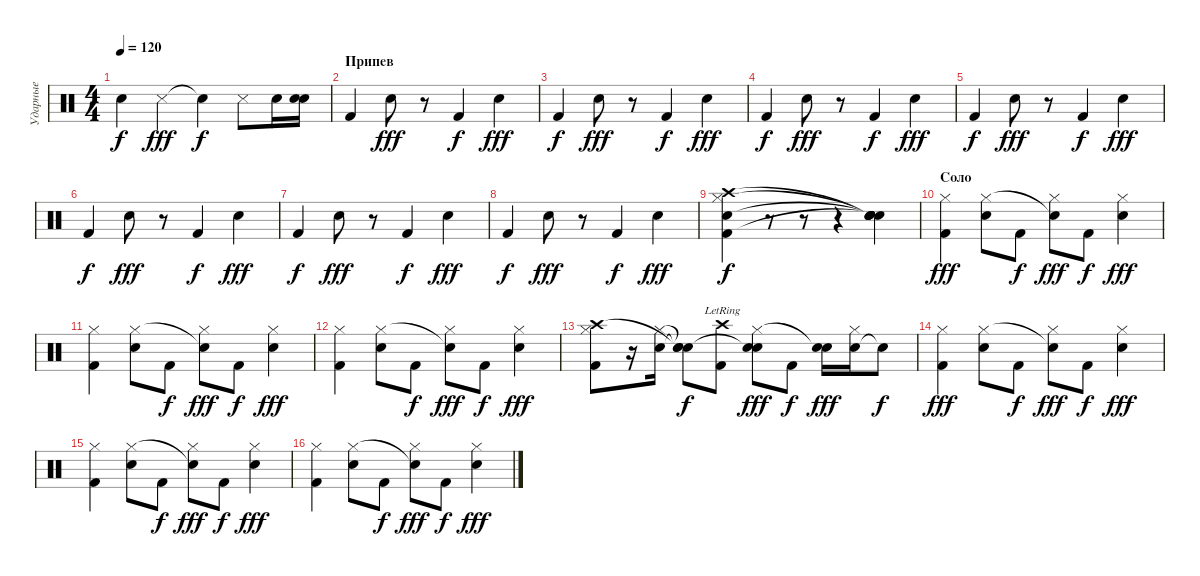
\track ("Ударные" "Ударные") {instrument percussion}
\staff {score}
\articulation defaults
\ts (4 4)
\tempo 120
\clef neutral
\ks c "Snare (hit)"{t}.4{dy f} "Snare (side stick) 3".4{dy fff} "Snare (hit)"{t}.4{dy f} "Snare (side stick) 3".8 "Snare (hit) 2".16
("Snare (hit) 2" "Snare (hit)").16 |
\section ("" "Припев")
"Kick (hit) 2".4 "Snare (hit) 2".8{dy fff} r.8 "Kick (hit) 2".4{dy f} "Snare (hit) 2".4{dy fff} |
"Kick (hit) 2".4{dy f} "Snare (hit) 2".8{dy fff} r.8 "Kick (hit) 2".4{dy f} "Snare (hit) 2".4{dy fff} |
"Kick (hit) 2".4{dy f} "Snare (hit) 2".8{dy fff} r.8 "Kick (hit) 2".4{dy f} "Snare (hit) 2".4{dy fff} |
"Kick (hit) 2".4{dy f} "Snare (hit) 2".8{dy fff} r.8 "Kick (hit) 2".4{dy f} "Snare (hit) 2".4{dy fff} |
"Kick (hit) 2".4{dy f} "Snare (hit) 2".8{dy fff} r.8 "Kick (hit) 2".4{dy f} "Snare (hit) 2".4{dy fff} |
"Kick (hit) 2".4{dy f} "Snare (hit) 2".8{dy fff} r.8 "Kick (hit) 2".4{dy f} "Snare (hit) 2".4{dy fff} |
"Kick (hit) 2".4{dy f} "Snare (hit) 2".8{dy fff} r.8 "Kick (hit) 2".4{dy f} "Snare (hit) 2".4{dy fff} |
("Snare (hit) 2" "Hi-Hat (closed)" "Kick (hit) 2" "Crash high (hit)").4{dy f} r.8 r.8 r.4 ("Snare (hit)"{t} "Snare (hit)"{t} "Snare (hit)"{t} "Snare (hit)"{t} "Snare (hit)").4 |
\section ("" "Соло")
("Hi-Hat (closed)" "Kick (hit) 2").4{dy fff} ("Snare (hit) 2" "Hi-Hat (closed)").8 "Kick (hit) 2".8{dy f} ("Hi-Hat (closed)" "Snare (hit)"{t}).8{dy fff} "Kick (hit) 2".8{dy f} ("Snare (hit) 2" "Hi-Hat (closed)").4{dy fff} |
("Hi-Hat (closed)" "Kick (hit) 2").4 ("Snare (hit) 2" "Hi-Hat (closed)").8 "Kick (hit) 2".8{dy f} ("Hi-Hat (closed)" "Snare (hit)"{t}).8{dy fff} "Kick (hit) 2".8{dy f} ("Snare (hit) 2" "Hi-Hat (closed)").4{dy fff} |
("Hi-Hat (closed)" "Kick (hit) 2").4 ("Snare (hit) 2" "Hi-Hat (closed)").8 "Kick (hit) 2".8{dy f} ("Hi-Hat (closed)" "Snare (hit)"{t}).8{dy fff} "Kick (hit) 2".8{dy f} ("Snare (hit) 2" "Hi-Hat (closed)").4{dy fff} |
("Hi-Hat (closed)" "Kick (hit) 2" "Crash high (hit)").8 r.16 ("Snare (hit) 2" "Hi-Hat (closed)").16 ("Snare (hit)"{t} "Snare (hit)"{t} "Snare (hit)"{t}).8{dy f} ("Kick (hit) 2" "Crash high (hit)"{lr}).8 ("Snare (hit) 2" "Hi-Hat (closed)" "Snare (hit)"{t}).8{dy fff} "Kick (hit) 2".8{dy f} ("Snare (hit) 2" "Snare (hit)"{t}).16{dy fff} ("Snare (hit) 2" "Hi-Hat (closed)").16 "Snare (hit)"{t}.8{dy f} |
("Hi-Hat (closed)" "Kick (hit) 2").4{dy fff} ("Snare (hit) 2" "Hi-Hat (closed)").8 "Kick (hit) 2".8{dy f} ("Hi-Hat (closed)" "Snare (hit)"{t}).8{dy fff} "Kick (hit) 2".8{dy f} ("Snare (hit) 2" "Hi-Hat (closed)").4{dy fff} |
("Hi-Hat (closed)" "Kick (hit) 2").4 ("Snare (hit) 2" "Hi-Hat (closed)").8 "Kick (hit) 2".8{dy f} ("Hi-Hat (closed)" "Snare (hit)"{t}).8{dy fff} "Kick (hit) 2".8{dy f} ("Snare (hit) 2" "Hi-Hat (closed)").4{dy fff} |
("Hi-Hat (closed)" "Kick (hit) 2").4 ("Snare (hit) 2" "Hi-Hat (closed)").8 "Kick (hit) 2".8{dy f} ("Hi-Hat (closed)" "Snare (hit)"{t}).8{dy fff} "Kick (hit) 2".8{dy f} ("Snare (hit) 2" "Hi-Hat (closed)").4{dy fff}
